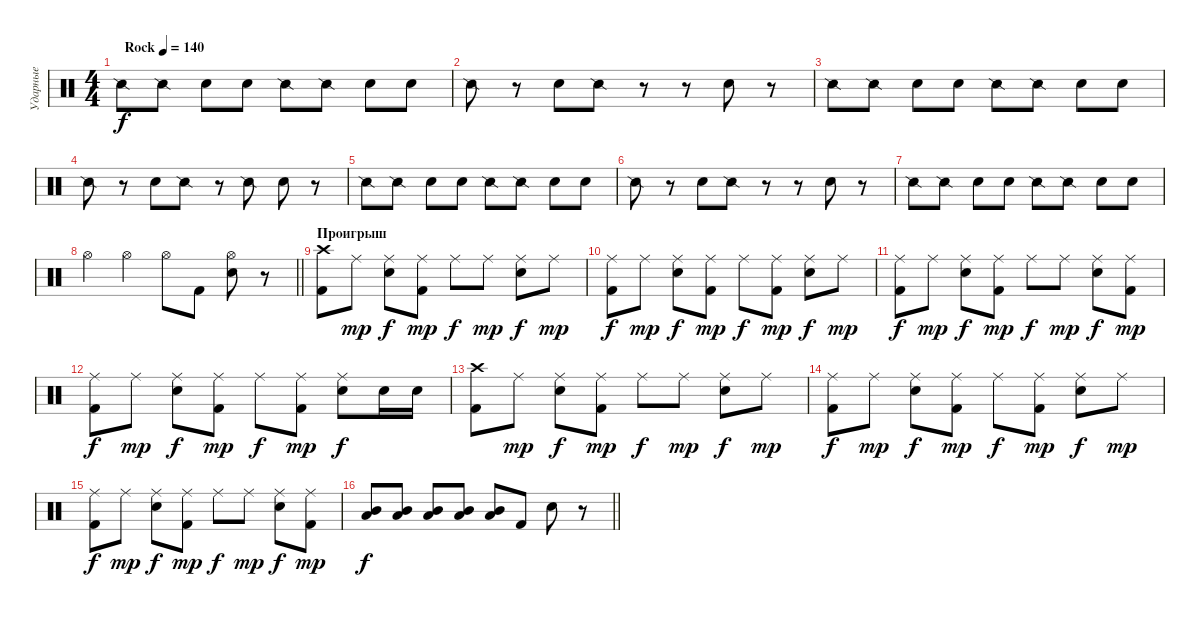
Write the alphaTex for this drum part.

\track ("Ударные" "Ударные") {instrument percussion}
\staff {score}
\articulation defaults
\ts (4 4)
\tempo (140 "Rock")
\clef neutral
\ks c "Snare (side stick) 2".8{dy f} "Snare (side stick) 2".8 "Hand Clap (hit)".8 "Hand Clap (hit)".8 "Snare (side stick) 2".8 "Snare (side stick) 2".8 "Hand Clap (hit)".8 "Hand Clap (hit)".8
|
"Snare (side stick) 2".8 r.8 "Hand Clap (hit)".8 "Snare (side stick) 2".8 r.8 r.8 "Hand Clap (hit)".8 r.8 |
"Snare (side stick) 2".8 "Snare (side stick) 2".8 "Hand Clap (hit)".8 "Hand Clap (hit)".8 "Snare (side stick) 2".8 "Snare (side stick) 2".8 "Hand Clap (hit)".8 "Hand Clap (hit)".8 |
"Snare (side stick) 2".8 r.8 "Hand Clap (hit)".8 "Snare (side stick) 2".8 r.8 "Snare (side stick) 2".8 "Hand Clap (hit)".8 r.8 |
"Snare (side stick) 2".8 "Snare (side stick) 2".8 "Hand Clap (hit)".8 "Hand Clap (hit)".8 "Snare (side stick) 2".8 "Snare (side stick) 2".8 "Hand Clap (hit)".8 "Hand Clap (hit)".8 |
"Snare (side stick) 2".8 r.8 "Hand Clap (hit)".8 "Snare (side stick) 2".8 r.8 r.8 "Hand Clap (hit)".8 r.8 |
"Snare (side stick) 2".8 "Snare (side stick) 2".8 "Hand Clap (hit)".8 "Hand Clap (hit)".8 "Snare (side stick) 2".8 "Snare (side stick) 2".8 "Hand Clap (hit)".8 "Hand Clap (hit)".8 |
\barLineRight lightlight "Hi-Hat (open)".4 "Hi-Hat (open)".4 "Hi-Hat (open)".8 "Kick (hit) 2".8
("Snare (hit) 2" "Hi-Hat (open)").8 r.8 |
\section ("" "Проигрыш")
("Crash high (hit)" "Kick (hit) 2").8 "Ride (middle)".8{dy mp} ("Ride (middle)" "Snare (hit) 2").8{dy f} ("Ride (middle)" "Kick (hit) 2").8{dy mp} "Ride (middle)".8{dy f} "Ride (middle)".8{dy mp} ("Ride (middle)" "Snare (hit) 2").8{dy f} "Ride (middle)".8{dy mp} |
("Ride (middle)" "Kick (hit) 2").8{dy f} "Ride (middle)".8{dy mp} ("Ride (middle)" "Snare (hit) 2").8{dy f} ("Ride (middle)" "Kick (hit) 2").8{dy mp} "Ride (middle)".8{dy f} ("Ride (middle)" "Kick (hit) 2").8{dy mp} ("Ride (middle)" "Snare (hit) 2").8{dy f} "Ride (middle)".8{dy mp} |
("Ride (middle)" "Kick (hit) 2").8{dy f} "Ride (middle)".8{dy mp} ("Ride (middle)" "Snare (hit) 2").8{dy f} ("Ride (middle)" "Kick (hit) 2").8{dy mp} "Ride (middle)".8{dy f} "Ride (middle)".8{dy mp} ("Ride (middle)" "Snare (hit) 2").8{dy f} ("Ride (middle)" "Kick (hit) 2").8{dy mp} |
("Ride (middle)" "Kick (hit) 2").8{dy f} "Ride (middle)".8{dy mp} ("Ride (middle)" "Snare (hit) 2").8{dy f} ("Ride (middle)" "Kick (hit) 2").8{dy mp} "Ride (middle)".8{dy f} ("Ride (middle)" "Kick (hit) 2").8{dy mp} ("Ride (middle)" "Snare (hit) 2").8{dy f} "Snare (hit) 2".16 "Snare (hit) 2".16 |
("Crash high (hit)" "Kick (hit) 2").8 "Ride (middle)".8{dy mp} ("Ride (middle)" "Snare (hit) 2").8{dy f} ("Ride (middle)" "Kick (hit) 2").8{dy mp} "Ride (middle)".8{dy f} "Ride (middle)".8{dy mp} ("Ride (middle)" "Snare (hit) 2").8{dy f} "Ride (middle)".8{dy mp} |
("Ride (middle)" "Kick (hit) 2").8{dy f} "Ride (middle)".8{dy mp} ("Ride (middle)" "Snare (hit) 2").8{dy f} ("Ride (middle)" "Kick (hit) 2").8{dy mp} "Ride (middle)".8{dy f} ("Ride (middle)" "Kick (hit) 2").8{dy mp} ("Ride (middle)" "Snare (hit) 2").8{dy f} "Ride (middle)".8{dy mp} |
("Ride (middle)" "Kick (hit) 2").8{dy f} "Ride (middle)".8{dy mp} ("Ride (middle)" "Snare (hit) 2").8{dy f} ("Ride (middle)" "Kick (hit) 2").8{dy mp} "Ride (middle)".8{dy f} "Ride (middle)".8{dy mp} ("Ride (middle)" "Snare (hit) 2").8{dy f} ("Ride (middle)" "Kick (hit) 2").8{dy mp} |
\barLineRight lightlight
("Low Tom (hit)" "Mid Tom (hit)").8{dy f} ("Low Tom (hit)" "Mid Tom (hit)").8 ("Low Tom (hit)" "Mid Tom (hit)").8 ("Low Tom (hit)" "Mid Tom (hit)").8 ("Low Tom (hit)" "Mid Tom (hit)").8 "Kick (hit) 2".8 "Snare (hit) 2".8 r.8
